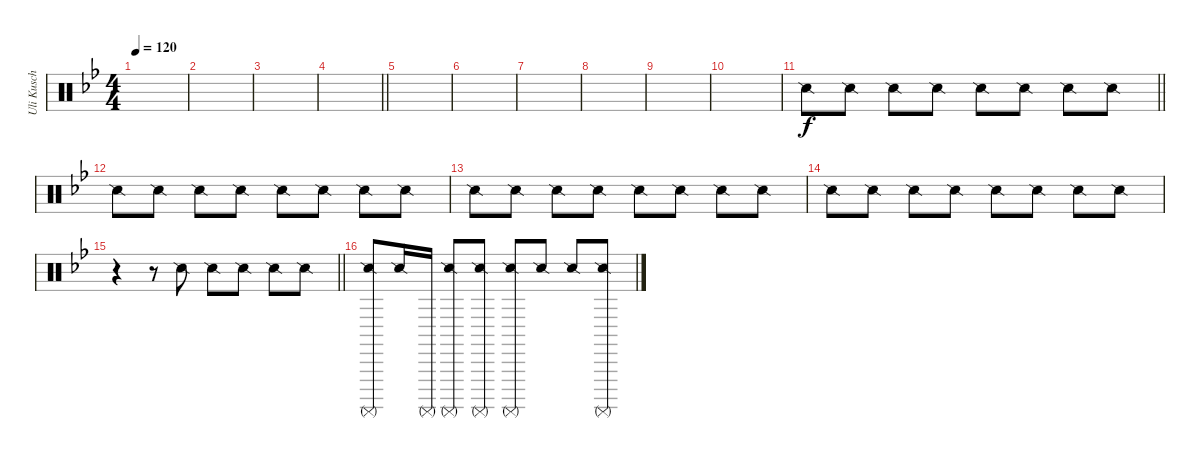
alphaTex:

\track ("Uli Kusch" "Uli Kusch") {instrument percussion}
\staff {score}
\articulation defaults
\ts (4 4)
\tempo 120
\clef neutral
\ks gminor
|
|
|
\barLineRight lightlight
|
|
|
|
|
|
|
\barLineRight lightlight "Snare (side stick) 2".8 "Snare (side stick) 2".8 "Snare (side stick) 2".8 "Snare (side stick) 2".8 "Snare (side stick) 2".8 "Snare (side stick) 2".8 "Snare (side stick) 2".8 "Snare (side stick) 2".8
|
"Snare (side stick) 2".8 "Snare (side stick) 2".8 "Snare (side stick) 2".8 "Snare (side stick) 2".8 "Snare (side stick) 2".8 "Snare (side stick) 2".8 "Snare (side stick) 2".8 "Snare (side stick) 2".8 |
"Snare (side stick) 2".8 "Snare (side stick) 2".8 "Snare (side stick) 2".8 "Snare (side stick) 2".8 "Snare (side stick) 2".8 "Snare (side stick) 2".8 "Snare (side stick) 2".8 "Snare (side stick) 2".8 |
"Snare (side stick) 2".8 "Snare (side stick) 2".8 "Snare (side stick) 2".8 "Snare (side stick) 2".8 "Snare (side stick) 2".8 "Snare (side stick) 2".8 "Snare (side stick) 2".8 "Snare (side stick) 2".8 |
\barLineRight lightlight
r.4 r.8 "Snare (side stick) 2".8 "Snare (side stick) 2".8 "Snare (side stick) 2".8 "Snare (side stick) 2".8 "Snare (side stick) 2".8 |
("Surdo (mute)" "Snare (side stick) 2").8 "Snare (side stick) 2".16 "Surdo (mute)".16 ("Surdo (mute)" "Snare (side stick) 2").8 ("Surdo (mute)" "Snare (side stick) 2").8 ("Surdo (mute)" "Snare (side stick) 2").8 "Snare (side stick) 2".8 "Snare (side stick) 2".8 ("Surdo (mute)" "Snare (side stick) 2").8
